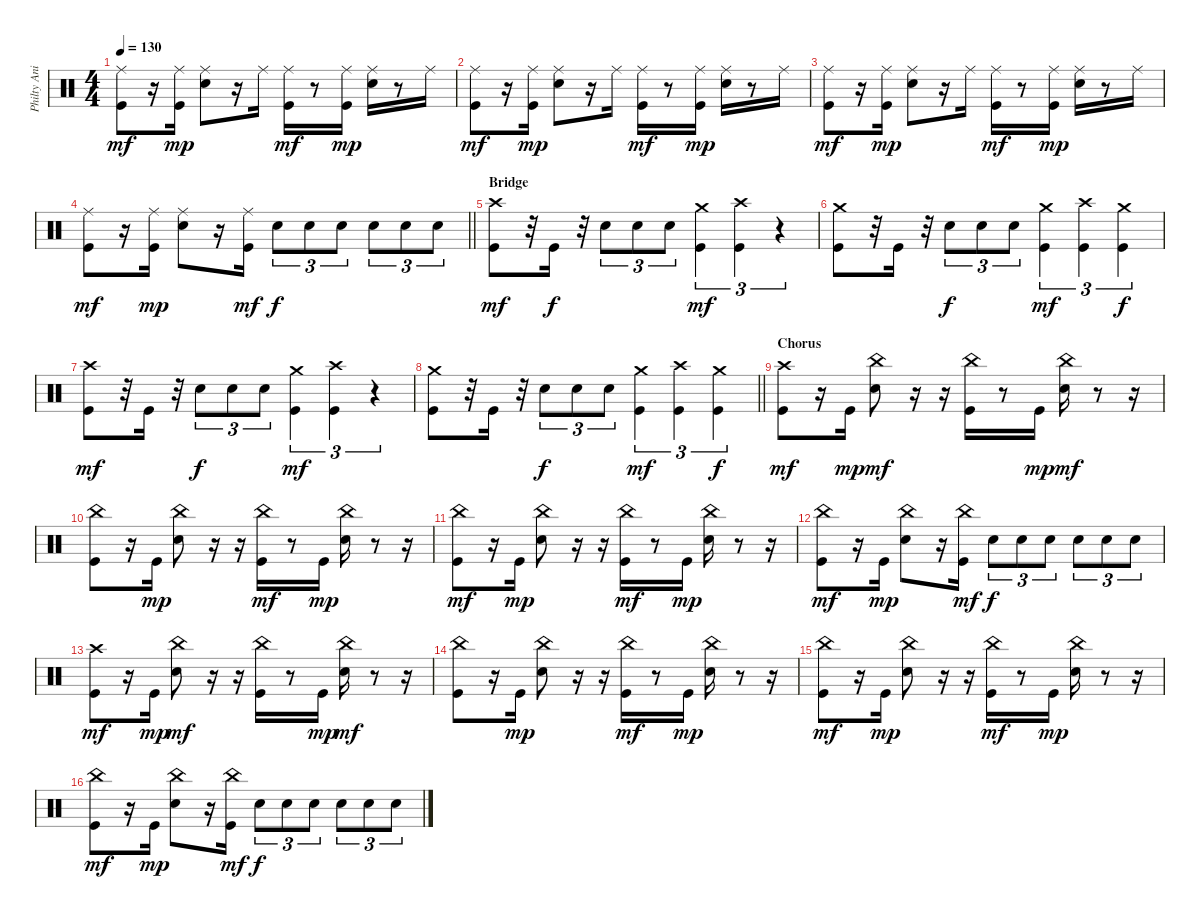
\track ("Philty Animal Taylor" "Philty Ani") {instrument percussion}
\staff {score}
\articulation defaults
\ts (4 4)
\tempo 130
\clef neutral
\ks c
("Ride (middle)" "Kick (hit)").8{dy mf} r.16 ("Ride (middle)" "Kick (hit)").16{dy mp} ("Ride (middle)" "Snare (hit) 2").8 r.16 "Ride (middle)".16 ("Ride (middle)" "Kick (hit)").16{dy mf} r.8 ("Ride (middle)" "Kick (hit)").16{dy mp} ("Ride (middle)" "Snare (hit) 2").16 r.8 "Ride (middle)".16 |
("Ride (middle)" "Kick (hit)").8{dy mf} r.16 ("Ride (middle)" "Kick (hit)").16{dy mp} ("Ride (middle)" "Snare (hit) 2").8 r.16 "Ride (middle)".16 ("Ride (middle)" "Kick (hit)").16{dy mf} r.8 ("Ride (middle)" "Kick (hit)").16{dy mp} ("Ride (middle)" "Snare (hit) 2").16 r.8 "Ride (middle)".16 |
("Ride (middle)" "Kick (hit)").8{dy mf} r.16 ("Ride (middle)" "Kick (hit)").16{dy mp} ("Ride (middle)" "Snare (hit) 2").8 r.16 "Ride (middle)".16 ("Ride (middle)" "Kick (hit)").16{dy mf} r.8 ("Ride (middle)" "Kick (hit)").16{dy mp} ("Ride (middle)" "Snare (hit) 2").16 r.8 "Ride (middle)".16 |
\barLineRight lightlight
("Ride (middle)" "Kick (hit)").8{dy mf} r.16 ("Ride (middle)" "Kick (hit)").16{dy mp} ("Ride (middle)" "Snare (hit) 2").8 r.16 ("Ride (middle)" "Kick (hit)").16{dy mf} "Snare (hit) 2".8{tu (3 2) dy f} "Snare (hit) 2".8{tu (3 2)} "Snare (hit) 2".8{tu (3 2)} "Snare (hit) 2".8{tu (3 2)} "Snare (hit) 2".8{tu (3 2)} "Snare (hit) 2".8{tu (3 2)} |
\section ("" "Bridge")
("Crash high (hit)" "Kick (hit)").8{dy mf} r.32 "Kick (hit)".16{dy f} r.32 "Snare (hit) 2".8{tu (3 2)} "Snare (hit) 2".8{tu (3 2)} "Snare (hit) 2".8{tu (3 2)} ("Crash medium (hit)" "Kick (hit)").4{tu (3 2) dy mf} ("Crash high (hit)" "Kick (hit)").4{tu (3 2)} r.4{tu (3 2)} |
("Crash medium (hit)" "Kick (hit)").8 r.32 "Kick (hit)".16 r.32 "Snare (hit) 2".8{tu (3 2) dy f} "Snare (hit) 2".8{tu (3 2)} "Snare (hit) 2".8{tu (3 2)} ("Crash medium (hit)" "Kick (hit)").4{tu (3 2) dy mf} ("Crash high (hit)" "Kick (hit)").4{tu (3 2)} ("Crash medium (hit)" "Kick (hit)").4{tu (3 2) dy f} |
("Crash high (hit)" "Kick (hit)").8{dy mf} r.32 "Kick (hit)".16 r.32 "Snare (hit) 2".8{tu (3 2) dy f} "Snare (hit) 2".8{tu (3 2)} "Snare (hit) 2".8{tu (3 2)} ("Crash medium (hit)" "Kick (hit)").4{tu (3 2) dy mf} ("Crash high (hit)" "Kick (hit)").4{tu (3 2)} r.4{tu (3 2)} |
\barLineRight lightlight
("Crash medium (hit)" "Kick (hit)").8 r.32 "Kick (hit)".16 r.32 "Snare (hit) 2".8{tu (3 2) dy f} "Snare (hit) 2".8{tu (3 2)} "Snare (hit) 2".8{tu (3 2)} ("Crash medium (hit)" "Kick (hit)").4{tu (3 2) dy mf} ("Crash high (hit)" "Kick (hit)").4{tu (3 2)} ("Crash medium (hit)" "Kick (hit)").4{tu (3 2) dy f} |
\section ("" "Chorus")
("Crash high (hit)" "Kick (hit)").8{dy mf} r.16 "Kick (hit)".16{dy mp} ("China (hit)" "Snare (hit) 2").8{dy mf} r.16 r.16 ("China (hit)" "Kick (hit)").16 r.8 "Kick (hit)".16{dy mp} ("China (hit)" "Snare (hit) 2").16{dy mf} r.8 r.16 |
("China (hit)" "Kick (hit)").8 r.16 "Kick (hit)".16{dy mp} ("China (hit)" "Snare (hit) 2").8 r.16 r.16 ("China (hit)" "Kick (hit)").16{dy mf} r.8 "Kick (hit)".16{dy mp} ("China (hit)" "Snare (hit) 2").16 r.8 r.16 |
("China (hit)" "Kick (hit)").8{dy mf} r.16 "Kick (hit)".16{dy mp} ("China (hit)" "Snare (hit) 2").8 r.16 r.16 ("China (hit)" "Kick (hit)").16{dy mf} r.8 "Kick (hit)".16{dy mp} ("China (hit)" "Snare (hit) 2").16 r.8 r.16 |
("China (hit)" "Kick (hit)").8{dy mf} r.16 "Kick (hit)".16{dy mp} ("China (hit)" "Snare (hit) 2").8 r.16 ("China (hit)" "Kick (hit)").16{dy mf} "Snare (hit) 2".8{tu (3 2) dy f} "Snare (hit) 2".8{tu (3 2)} "Snare (hit) 2".8{tu (3 2)} "Snare (hit) 2".8{tu (3 2)} "Snare (hit) 2".8{tu (3 2)} "Snare (hit) 2".8{tu (3 2)} |
("Crash high (hit)" "Kick (hit)").8{dy mf} r.16 "Kick (hit)".16{dy mp} ("China (hit)" "Snare (hit) 2").8{dy mf} r.16 r.16 ("China (hit)" "Kick (hit)").16 r.8 "Kick (hit)".16{dy mp} ("China (hit)" "Snare (hit) 2").16{dy mf} r.8 r.16 |
("China (hit)" "Kick (hit)").8 r.16 "Kick (hit)".16{dy mp} ("China (hit)" "Snare (hit) 2").8 r.16 r.16 ("China (hit)" "Kick (hit)").16{dy mf} r.8 "Kick (hit)".16{dy mp} ("China (hit)" "Snare (hit) 2").16 r.8 r.16 |
("China (hit)" "Kick (hit)").8{dy mf} r.16 "Kick (hit)".16{dy mp} ("China (hit)" "Snare (hit) 2").8 r.16 r.16 ("China (hit)" "Kick (hit)").16{dy mf} r.8 "Kick (hit)".16{dy mp} ("China (hit)" "Snare (hit) 2").16 r.8 r.16 |
("China (hit)" "Kick (hit)").8{dy mf} r.16 "Kick (hit)".16{dy mp} ("China (hit)" "Snare (hit) 2").8 r.16 ("China (hit)" "Kick (hit)").16{dy mf} "Snare (hit) 2".8{tu (3 2) dy f} "Snare (hit) 2".8{tu (3 2)} "Snare (hit) 2".8{tu (3 2)} "Snare (hit) 2".8{tu (3 2)} "Snare (hit) 2".8{tu (3 2)} "Snare (hit) 2".8{tu (3 2)}
